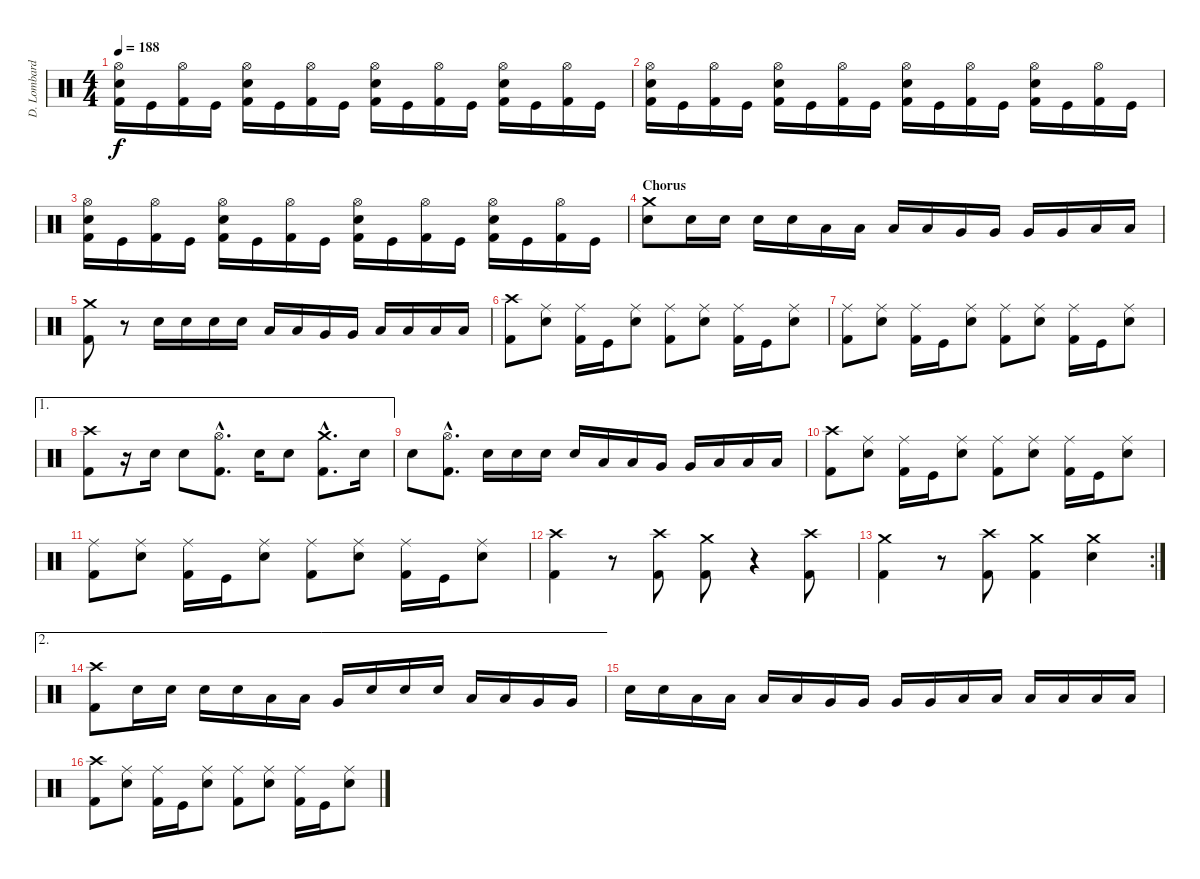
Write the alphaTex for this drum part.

\track ("D. Lombardo" "D. Lombard") {instrument percussion}
\staff {score}
\articulation defaults
\ts (4 4)
\tempo 188
\clef neutral
\ks c
("Hi-Hat (open)" "Electric Snare (hit)" "Kick (hit) 2").16{dy f} "Kick (hit)".16 ("Hi-Hat (open)" "Kick (hit) 2").16 "Kick (hit)".16 ("Hi-Hat (open)" "Electric Snare (hit)" "Kick (hit) 2").16 "Kick (hit)".16 ("Hi-Hat (open)" "Kick (hit) 2").16 "Kick (hit)".16 ("Hi-Hat (open)" "Electric Snare (hit)" "Kick (hit) 2").16 "Kick (hit)".16 ("Hi-Hat (open)" "Kick (hit) 2").16 "Kick (hit)".16 ("Hi-Hat (open)" "Electric Snare (hit)" "Kick (hit) 2").16 "Kick (hit)".16 ("Hi-Hat (open)" "Kick (hit) 2").16 "Kick (hit)".16 |
("Hi-Hat (open)" "Electric Snare (hit)" "Kick (hit) 2").16 "Kick (hit)".16 ("Hi-Hat (open)" "Kick (hit) 2").16 "Kick (hit)".16 ("Hi-Hat (open)" "Electric Snare (hit)" "Kick (hit) 2").16 "Kick (hit)".16 ("Hi-Hat (open)" "Kick (hit) 2").16 "Kick (hit)".16 ("Hi-Hat (open)" "Electric Snare (hit)" "Kick (hit) 2").16 "Kick (hit)".16 ("Hi-Hat (open)" "Kick (hit) 2").16 "Kick (hit)".16 ("Hi-Hat (open)" "Electric Snare (hit)" "Kick (hit) 2").16 "Kick (hit)".16 ("Hi-Hat (open)" "Kick (hit) 2").16 "Kick (hit)".16 |
("Hi-Hat (open)" "Electric Snare (hit)" "Kick (hit) 2").16 "Kick (hit)".16 ("Hi-Hat (open)" "Kick (hit) 2").16 "Kick (hit)".16 ("Hi-Hat (open)" "Electric Snare (hit)" "Kick (hit) 2").16 "Kick (hit)".16 ("Hi-Hat (open)" "Kick (hit) 2").16 "Kick (hit)".16 ("Hi-Hat (open)" "Electric Snare (hit)" "Kick (hit) 2").16 "Kick (hit)".16 ("Hi-Hat (open)" "Kick (hit) 2").16 "Kick (hit)".16 ("Hi-Hat (open)" "Electric Snare (hit)" "Kick (hit) 2").16 "Kick (hit)".16 ("Hi-Hat (open)" "Kick (hit) 2").16 "Kick (hit)".16 |
\section ("" "Chorus")
("Crash medium (hit)" "Electric Snare (hit)").8 "Electric Snare (hit)".16 "Electric Snare (hit)".16 "Electric Snare (hit)".16 "Electric Snare (hit)".16 "Low Tom (hit)".16 "Low Tom (hit)".16 "Low Tom (hit)".16 "Low Tom (hit)".16 "Very Low Tom (hit)".16 "Very Low Tom (hit)".16 "Very Low Tom (hit)".16 "Very Low Tom (hit)".16 "Low Floor Tom (hit)".16 "Low Floor Tom (hit)".16 |
("Crash medium (hit)" "Kick (hit) 2").8 r.8 "Electric Snare (hit)".16 "Electric Snare (hit)".16 "Electric Snare (hit)".16 "Electric Snare (hit)".16 "Low Tom (hit)".16 "Low Tom (hit)".16 "Very Low Tom (hit)".16 "Very Low Tom (hit)".16 "Low Floor Tom (hit)".16 "Low Floor Tom (hit)".16 "Low Floor Tom (hit)".16 "Low Floor Tom (hit)".16 |
("Crash high (hit)" "Kick (hit) 2").8 ("Ride (middle)" "Electric Snare (hit)").8 ("Ride (middle)" "Kick (hit) 2").16 "Kick (hit)".16 ("Ride (middle)" "Electric Snare (hit)").8 ("Ride (middle)" "Kick (hit) 2").8 ("Ride (middle)" "Electric Snare (hit)").8 ("Ride (middle)" "Kick (hit) 2").16 "Kick (hit)".16 ("Ride (middle)" "Electric Snare (hit)").8 |
("Ride (middle)" "Kick (hit) 2").8 ("Ride (middle)" "Electric Snare (hit)").8 ("Ride (middle)" "Kick (hit) 2").16 "Kick (hit)".16 ("Ride (middle)" "Electric Snare (hit)").8 ("Ride (middle)" "Kick (hit) 2").8 ("Ride (middle)" "Electric Snare (hit)").8 ("Ride (middle)" "Kick (hit) 2").16 "Kick (hit)".16 ("Ride (middle)" "Electric Snare (hit)").8 |
\ae 1
("Crash high (hit)" "Kick (hit) 2").8 r.16 "Electric Snare (hit)".16 "Electric Snare (hit)".8 ("Hi-Hat (open)"{hac} "Kick (hit) 2"{hac}).8{d} "Electric Snare (hit)".16 "Electric Snare (hit)".8 ("Crash medium (hit)"{hac} "Kick (hit) 2"{hac}).8{d} "Electric Snare (hit)".16 |
"Electric Snare (hit)".8 ("Hi-Hat (open)"{hac} "Kick (hit) 2"{hac}).8{d} "Electric Snare (hit)".16 "Electric Snare (hit)".16 "Electric Snare (hit)".16 "Electric Snare (hit)".16 "Low Tom (hit)".16 "Low Tom (hit)".16 "Very Low Tom (hit)".16 "Very Low Tom (hit)".16 "Low Floor Tom (hit)".16 "Low Floor Tom (hit)".16 "Low Floor Tom (hit)".16 |
("Crash high (hit)" "Kick (hit) 2").8 ("Ride (middle)" "Electric Snare (hit)").8 ("Ride (middle)" "Kick (hit) 2").16 "Kick (hit)".16 ("Ride (middle)" "Electric Snare (hit)").8 ("Ride (middle)" "Kick (hit) 2").8 ("Ride (middle)" "Electric Snare (hit)").8 ("Ride (middle)" "Kick (hit) 2").16 "Kick (hit)".16 ("Ride (middle)" "Electric Snare (hit)").8 |
("Ride (middle)" "Kick (hit) 2").8 ("Ride (middle)" "Electric Snare (hit)").8 ("Ride (middle)" "Kick (hit) 2").16 "Kick (hit)".16 ("Ride (middle)" "Electric Snare (hit)").8 ("Ride (middle)" "Kick (hit) 2").8 ("Ride (middle)" "Electric Snare (hit)").8 ("Ride (middle)" "Kick (hit) 2").16 "Kick (hit)".16 ("Ride (middle)" "Electric Snare (hit)").8 |
("Crash high (hit)" "Kick (hit) 2").4 r.8 ("Crash high (hit)" "Kick (hit) 2").8 ("Crash medium (hit)" "Kick (hit) 2").8 r.4 ("Crash high (hit)" "Kick (hit) 2").8 |
\rc 2
("Crash medium (hit)" "Kick (hit) 2").4 r.8 ("Crash high (hit)" "Kick (hit) 2").8 ("Crash medium (hit)" "Kick (hit) 2").4 ("Crash medium (hit)" "Electric Snare (hit)").4 |
\ae 2
("Crash high (hit)" "Kick (hit) 2").8 "Electric Snare (hit)".16 "Electric Snare (hit)".16 "Electric Snare (hit)".16 "Electric Snare (hit)".16 "Low Tom (hit)".16 "Low Tom (hit)".16 "Very Low Tom (hit)".16 "Electric Snare (hit)".16 "Electric Snare (hit)".16 "Electric Snare (hit)".16 "Low Tom (hit)".16 "Low Tom (hit)".16 "Very Low Tom (hit)".16 "Very Low Tom (hit)".16 |
"Electric Snare (hit)".16 "Electric Snare (hit)".16 "Low Tom (hit)".16 "Low Tom (hit)".16 "Low Tom (hit)".16 "Low Tom (hit)".16 "Very Low Tom (hit)".16 "Very Low Tom (hit)".16 "Very Low Tom (hit)".16 "Very Low Tom (hit)".16 "Low Floor Tom (hit)".16 "Low Floor Tom (hit)".16 "Low Floor Tom (hit)".16 "Low Floor Tom (hit)".16 "Low Floor Tom (hit)".16 "Low Floor Tom (hit)".16 |
("Crash high (hit)" "Kick (hit) 2").8 ("Ride (middle)" "Electric Snare (hit)").8 ("Ride (middle)" "Kick (hit) 2").16 "Kick (hit)".16 ("Ride (middle)" "Electric Snare (hit)").8 ("Ride (middle)" "Kick (hit) 2").8 ("Ride (middle)" "Electric Snare (hit)").8 ("Ride (middle)" "Kick (hit) 2").16 "Kick (hit)".16 ("Ride (middle)" "Electric Snare (hit)").8
